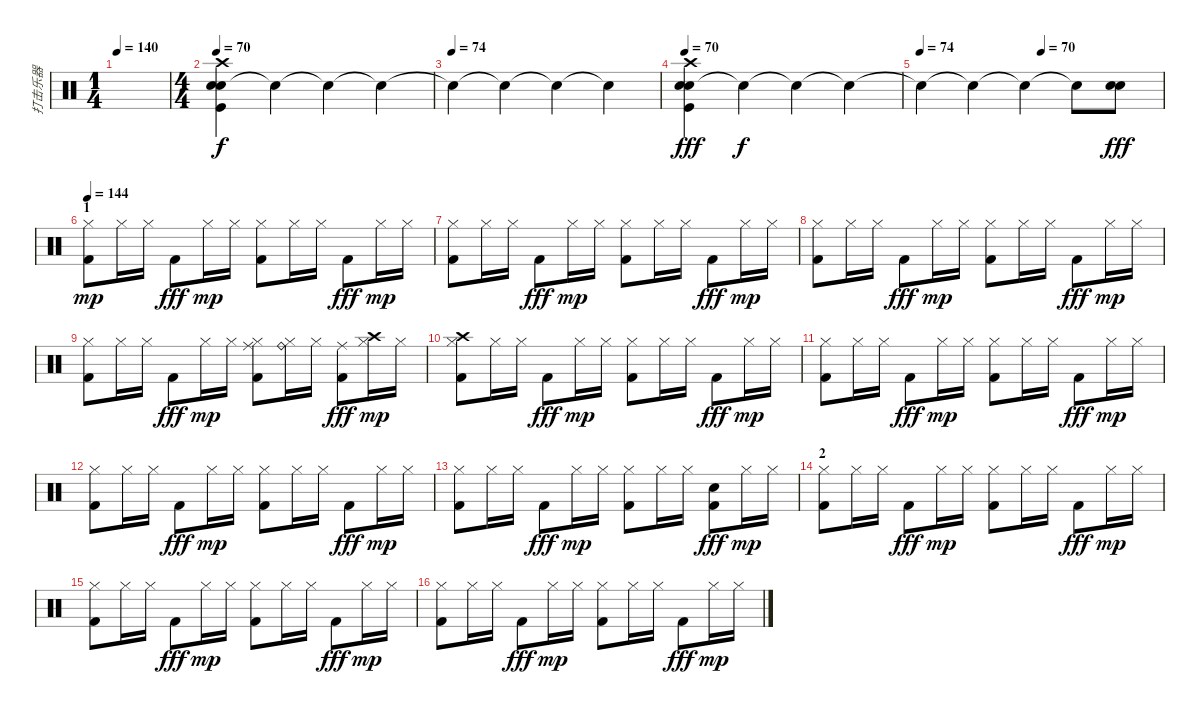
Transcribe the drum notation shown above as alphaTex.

\track ("打击乐器" "打击乐器") {instrument percussion}
\staff {score}
\articulation defaults
\ts (1 4)
\tempo 140
\clef neutral
\ks c
|
\ts (4 4)
\tempo 70
("Snare (hit) 2" "Kick (hit)" "Snare (hit) 2" "Crash high (hit)").4 "Snare (hit)"{t}.4{dy f} "Snare (hit)"{t}.4 "Snare (hit)"{t}.4 |
\tempo (74)
"Snare (hit)"{t}.4 "Snare (hit)"{t}.4 "Snare (hit)"{t}.4 "Snare (hit)"{t}.4 |
\tempo 70
("Snare (hit) 2" "Kick (hit)" "Snare (hit) 2" "Crash high (hit)").4{dy fff} "Snare (hit)"{t}.4{dy f} "Snare (hit)"{t}.4 "Snare (hit)"{t}.4 |
\tempo (70 0.5)
\tempo (74)
"Snare (hit)"{t}.4 "Snare (hit)"{t}.4 "Snare (hit)"{t}.4 "Snare (hit)"{t}.8 ("Snare (hit) 2" "Snare (hit) 2").8{dy fff} |
\section ("" "1")
\tempo 144
("Kick (hit) 2" "Hi-Hat (closed)").8{dy mp} "Hi-Hat (closed)".16 "Hi-Hat (closed)".16 "Kick (hit) 2".8{dy fff} "Hi-Hat (closed)".16{dy mp} "Hi-Hat (closed)".16 ("Kick (hit) 2" "Hi-Hat (closed)").8 "Hi-Hat (closed)".16 "Hi-Hat (closed)".16 "Kick (hit) 2".8{dy fff} "Hi-Hat (closed)".16{dy mp} "Hi-Hat (closed)".16 |
("Kick (hit) 2" "Hi-Hat (closed)").8 "Hi-Hat (closed)".16 "Hi-Hat (closed)".16 "Kick (hit) 2".8{dy fff} "Hi-Hat (closed)".16{dy mp} "Hi-Hat (closed)".16 ("Kick (hit) 2" "Hi-Hat (closed)").8 "Hi-Hat (closed)".16 "Hi-Hat (closed)".16 "Kick (hit) 2".8{dy fff} "Hi-Hat (closed)".16{dy mp} "Hi-Hat (closed)".16 |
("Kick (hit) 2" "Hi-Hat (closed)").8 "Hi-Hat (closed)".16 "Hi-Hat (closed)".16 "Kick (hit) 2".8{dy fff} "Hi-Hat (closed)".16{dy mp} "Hi-Hat (closed)".16 ("Kick (hit) 2" "Hi-Hat (closed)").8 "Hi-Hat (closed)".16 "Hi-Hat (closed)".16 "Kick (hit) 2".8{dy fff} "Hi-Hat (closed)".16{dy mp} "Hi-Hat (closed)".16 |
("Kick (hit) 2" "Hi-Hat (closed)").8 "Hi-Hat (closed)".16 "Hi-Hat (closed)".16 "Kick (hit) 2".8{dy fff} "Hi-Hat (closed)".16{dy mp} "Hi-Hat (closed)".16 ("Kick (hit) 2" "Hi-Hat (closed)" "Ride (middle)").8 ("Hi-Hat (closed)" "Ride (bell)").16 "Hi-Hat (closed)".16 ("Kick (hit) 2" "Ride (middle)").8{dy fff} ("Hi-Hat (closed)" "Crash high (hit)").16{dy mp} "Hi-Hat (closed)".16 |
("Kick (hit) 2" "Hi-Hat (closed)" "Crash high (hit)").8 "Hi-Hat (closed)".16 "Hi-Hat (closed)".16 "Kick (hit) 2".8{dy fff} "Hi-Hat (closed)".16{dy mp} "Hi-Hat (closed)".16 ("Kick (hit) 2" "Hi-Hat (closed)").8 "Hi-Hat (closed)".16 "Hi-Hat (closed)".16 "Kick (hit) 2".8{dy fff} "Hi-Hat (closed)".16{dy mp} "Hi-Hat (closed)".16 |
("Kick (hit) 2" "Hi-Hat (closed)").8 "Hi-Hat (closed)".16 "Hi-Hat (closed)".16 "Kick (hit) 2".8{dy fff} "Hi-Hat (closed)".16{dy mp} "Hi-Hat (closed)".16 ("Kick (hit) 2" "Hi-Hat (closed)").8 "Hi-Hat (closed)".16 "Hi-Hat (closed)".16 "Kick (hit) 2".8{dy fff} "Hi-Hat (closed)".16{dy mp} "Hi-Hat (closed)".16 |
("Kick (hit) 2" "Hi-Hat (closed)").8 "Hi-Hat (closed)".16 "Hi-Hat (closed)".16 "Kick (hit) 2".8{dy fff} "Hi-Hat (closed)".16{dy mp} "Hi-Hat (closed)".16 ("Kick (hit) 2" "Hi-Hat (closed)").8 "Hi-Hat (closed)".16 "Hi-Hat (closed)".16 "Kick (hit) 2".8{dy fff} "Hi-Hat (closed)".16{dy mp} "Hi-Hat (closed)".16 |
("Kick (hit) 2" "Hi-Hat (closed)").8 "Hi-Hat (closed)".16 "Hi-Hat (closed)".16 "Kick (hit) 2".8{dy fff} "Hi-Hat (closed)".16{dy mp} "Hi-Hat (closed)".16 ("Kick (hit) 2" "Hi-Hat (closed)").8 "Hi-Hat (closed)".16 "Hi-Hat (closed)".16 ("Kick (hit) 2" "Snare (hit) 2").8{dy fff} "Hi-Hat (closed)".16{dy mp} "Hi-Hat (closed)".16 |
\section ("" "2")
("Kick (hit) 2" "Hi-Hat (closed)").8 "Hi-Hat (closed)".16 "Hi-Hat (closed)".16 "Kick (hit) 2".8{dy fff} "Hi-Hat (closed)".16{dy mp} "Hi-Hat (closed)".16 ("Kick (hit) 2" "Hi-Hat (closed)").8 "Hi-Hat (closed)".16 "Hi-Hat (closed)".16 "Kick (hit) 2".8{dy fff} "Hi-Hat (closed)".16{dy mp} "Hi-Hat (closed)".16 |
("Kick (hit) 2" "Hi-Hat (closed)").8 "Hi-Hat (closed)".16 "Hi-Hat (closed)".16 "Kick (hit) 2".8{dy fff} "Hi-Hat (closed)".16{dy mp} "Hi-Hat (closed)".16 ("Kick (hit) 2" "Hi-Hat (closed)").8 "Hi-Hat (closed)".16 "Hi-Hat (closed)".16 "Kick (hit) 2".8{dy fff} "Hi-Hat (closed)".16{dy mp} "Hi-Hat (closed)".16 |
("Kick (hit) 2" "Hi-Hat (closed)").8 "Hi-Hat (closed)".16 "Hi-Hat (closed)".16 "Kick (hit) 2".8{dy fff} "Hi-Hat (closed)".16{dy mp} "Hi-Hat (closed)".16 ("Kick (hit) 2" "Hi-Hat (closed)").8 "Hi-Hat (closed)".16 "Hi-Hat (closed)".16 "Kick (hit) 2".8{dy fff} "Hi-Hat (closed)".16{dy mp} "Hi-Hat (closed)".16
